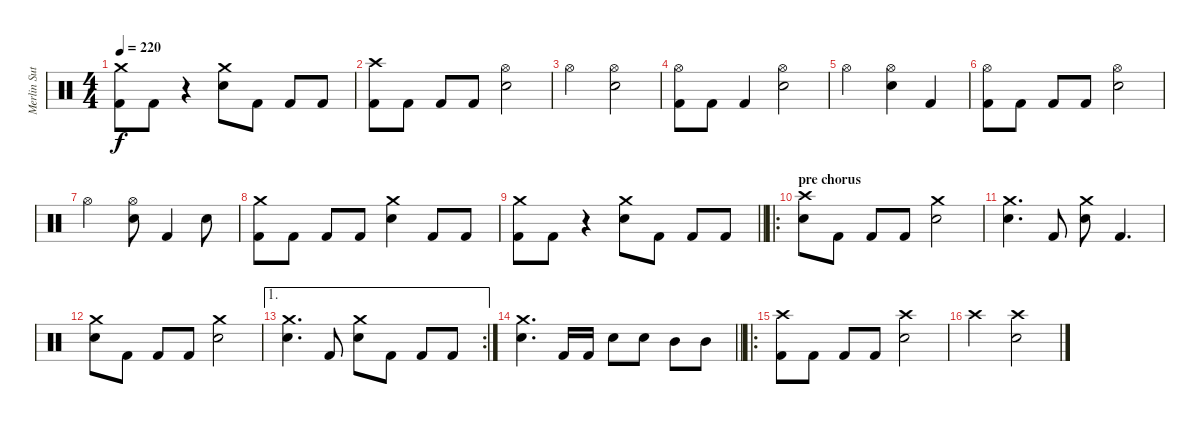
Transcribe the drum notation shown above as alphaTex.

\track ("Merlin Sutter" "Merlin Sut") {instrument percussion}
\staff {score}
\articulation defaults
\ts (4 4)
\tempo 220
\clef neutral
\ks c
("Crash medium (hit)" "Kick (hit) 2").8{dy f} "Kick (hit) 2".8 r.4 ("Crash medium (hit)" "Snare (hit) 2").8 "Kick (hit) 2".8 "Kick (hit) 2".8 "Kick (hit) 2".8 |
("Crash high (hit)" "Kick (hit) 2").8 "Kick (hit) 2".8 "Kick (hit) 2".8 "Kick (hit) 2".8 ("Hi-Hat (open)" "Snare (hit) 2").2 |
"Hi-Hat (open)".2 ("Hi-Hat (open)" "Snare (hit) 2").2 |
("Hi-Hat (open)" "Kick (hit) 2").8 "Kick (hit) 2".8 "Kick (hit) 2".4 ("Hi-Hat (open)" "Snare (hit) 2").2 |
"Hi-Hat (open)".2 ("Hi-Hat (open)" "Snare (hit) 2").4 "Kick (hit) 2".4 |
("Hi-Hat (open)" "Kick (hit) 2").8 "Kick (hit) 2".8 "Kick (hit) 2".8 "Kick (hit) 2".8 ("Hi-Hat (open)" "Snare (hit) 2").2 |
"Hi-Hat (open)".2 ("Hi-Hat (open)" "Snare (hit) 2").8 "Kick (hit) 2".4 "Snare (hit) 2".8 |
("Crash medium (hit)" "Kick (hit) 2").8 "Kick (hit) 2".8 "Kick (hit) 2".8 "Kick (hit) 2".8 ("Crash medium (hit)" "Snare (hit) 2").4 "Kick (hit) 2".8 "Kick (hit) 2".8 |
\barLineRight lightlight
("Crash medium (hit)" "Kick (hit) 2").8 "Kick (hit) 2".8 r.4 ("Crash medium (hit)" "Snare (hit) 2").8 "Kick (hit) 2".8 "Kick (hit) 2".8 "Kick (hit) 2".8 |
\ro
\section ("" "pre chorus")
("Crash high (hit)" "Snare (hit) 2").8 "Kick (hit) 2".8 "Kick (hit) 2".8 "Kick (hit) 2".8 ("Crash medium (hit)" "Snare (hit) 2").2 |
("Crash medium (hit)" "Snare (hit) 2").4{d} "Kick (hit) 2".8 ("Crash medium (hit)" "Snare (hit) 2").8 "Kick (hit) 2".4{d} |
("Crash medium (hit)" "Snare (hit) 2").8 "Kick (hit) 2".8 "Kick (hit) 2".8 "Kick (hit) 2".8 ("Crash medium (hit)" "Snare (hit) 2").2 |
\ae 1
\rc 2
("Crash medium (hit)" "Snare (hit) 2").4{d} "Kick (hit) 2".8 ("Crash medium (hit)" "Snare (hit) 2").8 "Kick (hit) 2".8 "Kick (hit) 2".8 "Kick (hit) 2".8 |
\barLineRight lightlight
("Crash medium (hit)" "Snare (hit) 2").4{d} "Kick (hit) 2".16 "Kick (hit) 2".16 "Snare (hit) 2".8 "Snare (hit) 2".8 "Mid Tom (hit)".8 "Mid Tom (hit)".8 |
\ro
\section ("" "")
("Crash high (hit)" "Kick (hit) 2").8 "Kick (hit) 2".8 "Kick (hit) 2".8 "Kick (hit) 2".8 ("Crash high (hit)" "Snare (hit) 2").2 |
"Crash high (hit)".2 ("Crash high (hit)" "Snare (hit) 2").2
